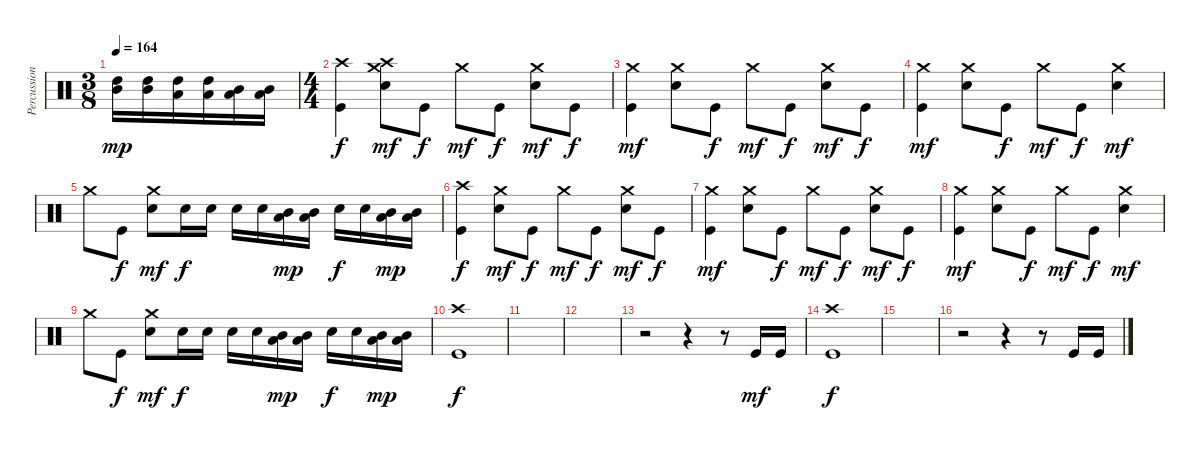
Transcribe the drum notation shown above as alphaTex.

\track ("Percussion" "Percussion") {instrument percussion}
\staff {score}
\articulation defaults
\ts (3 8)
\tempo 164
\clef neutral
\ks c
("High Tom (hit)" "Mid Tom (hit)").16{dy mp} ("High Tom (hit)" "Mid Tom (hit)").16 ("High Tom (hit)" "Low Tom (hit)").16 ("High Tom (hit)" "Low Tom (hit)").16 ("Mid Tom (hit)" "Low Tom (hit)").16 ("Mid Tom (hit)" "Low Tom (hit)").16 |
\ts (4 4)
("Kick (hit)" "Crash high (hit)").4{dy f} ("Electric Snare (hit)" "Crash medium (hit)" "Crash high (hit)").8{dy mf} "Kick (hit)".8{dy f} "Crash medium (hit)".8{dy mf} "Kick (hit)".8{dy f} ("Electric Snare (hit)" "Crash medium (hit)").8{dy mf} "Kick (hit)".8{dy f} |
("Kick (hit)" "Crash medium (hit)").4{dy mf} ("Electric Snare (hit)" "Crash medium (hit)").8 "Kick (hit)".8{dy f} "Crash medium (hit)".8{dy mf} "Kick (hit)".8{dy f} ("Electric Snare (hit)" "Crash medium (hit)").8{dy mf} "Kick (hit)".8{dy f} |
("Kick (hit)" "Crash medium (hit)").4{dy mf} ("Electric Snare (hit)" "Crash medium (hit)").8 "Kick (hit)".8{dy f} "Crash medium (hit)".8{dy mf} "Kick (hit)".8{dy f} ("Electric Snare (hit)" "Crash medium (hit)").4{dy mf} |
"Crash medium (hit)".8 "Kick (hit)".8{dy f} ("Electric Snare (hit)" "Crash medium (hit)").8{dy mf} "Electric Snare (hit)".16{dy f} "Electric Snare (hit)".16 "Electric Snare (hit)".16 "Electric Snare (hit)".16 ("Mid Tom (hit)" "Low Tom (hit)").16{dy mp} ("Mid Tom (hit)" "Low Tom (hit)").16 "Electric Snare (hit)".16{dy f} "Electric Snare (hit)".16 ("Mid Tom (hit)" "Low Tom (hit)").16{dy mp} ("Mid Tom (hit)" "Low Tom (hit)").16 |
("Kick (hit)" "Crash high (hit)").4{dy f} ("Electric Snare (hit)" "Crash medium (hit)").8{dy mf} "Kick (hit)".8{dy f} "Crash medium (hit)".8{dy mf} "Kick (hit)".8{dy f} ("Electric Snare (hit)" "Crash medium (hit)").8{dy mf} "Kick (hit)".8{dy f} |
("Kick (hit)" "Crash medium (hit)").4{dy mf} ("Electric Snare (hit)" "Crash medium (hit)").8 "Kick (hit)".8{dy f} "Crash medium (hit)".8{dy mf} "Kick (hit)".8{dy f} ("Electric Snare (hit)" "Crash medium (hit)").8{dy mf} "Kick (hit)".8{dy f} |
("Kick (hit)" "Crash medium (hit)").4{dy mf} ("Electric Snare (hit)" "Crash medium (hit)").8 "Kick (hit)".8{dy f} "Crash medium (hit)".8{dy mf} "Kick (hit)".8{dy f} ("Electric Snare (hit)" "Crash medium (hit)").4{dy mf} |
"Crash medium (hit)".8 "Kick (hit)".8{dy f} ("Electric Snare (hit)" "Crash medium (hit)").8{dy mf} "Electric Snare (hit)".16{dy f} "Electric Snare (hit)".16 "Electric Snare (hit)".16 "Electric Snare (hit)".16 ("Mid Tom (hit)" "Low Tom (hit)").16{dy mp} ("Mid Tom (hit)" "Low Tom (hit)").16 "Electric Snare (hit)".16{dy f} "Electric Snare (hit)".16 ("Mid Tom (hit)" "Low Tom (hit)").16{dy mp} ("Mid Tom (hit)" "Low Tom (hit)").16 |
("Kick (hit)" "Crash high (hit)").1{dy f} |
|
|
r.2 r.4 r.8 "Kick (hit)".16{dy mf} "Kick (hit)".16 |
("Kick (hit)" "Crash high (hit)").1{dy f} |
|
r.2 r.4 r.8 "Kick (hit)".16 "Kick (hit)".16
